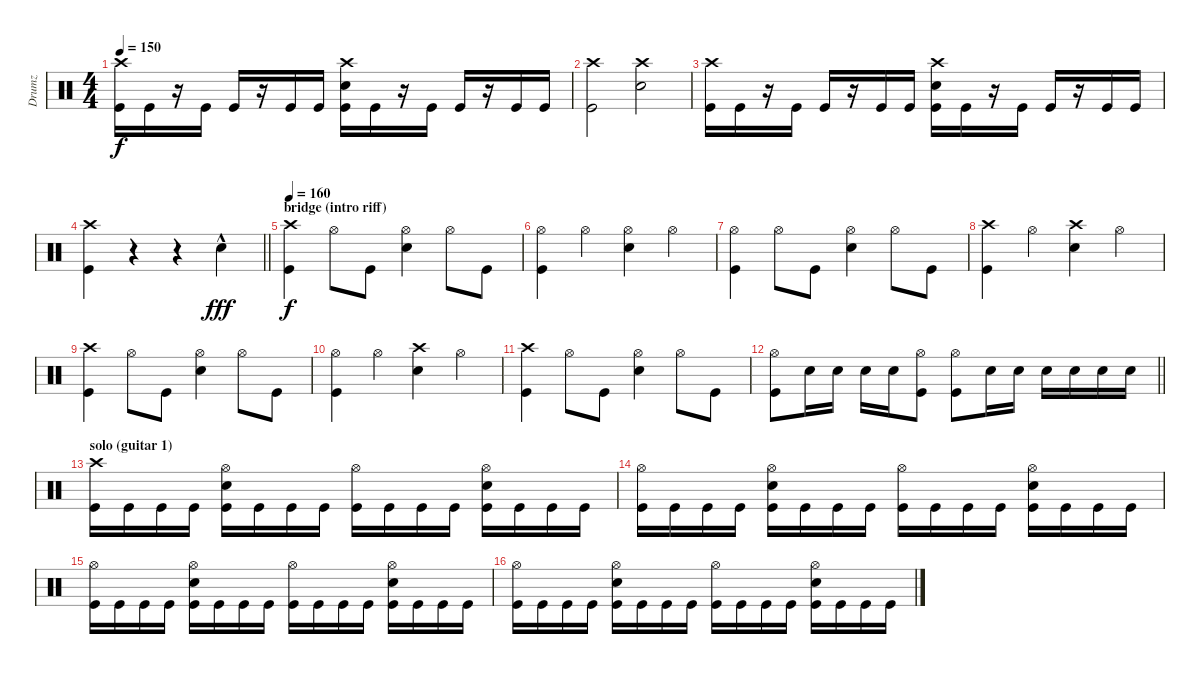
\track ("Drumz" "Drumz") {instrument percussion}
\staff {score}
\articulation defaults
\ts (4 4)
\tempo 150
\clef neutral
\ks c
("Crash high (hit)" "Kick (hit)").16{dy f} "Kick (hit)".16 r.16 "Kick (hit)".16 "Kick (hit)".16 r.16 "Kick (hit)".16 "Kick (hit)".16 ("Crash high (hit)" "Electric Snare (hit)" "Kick (hit)").16 "Kick (hit)".16 r.16 "Kick (hit)".16 "Kick (hit)".16 r.16 "Kick (hit)".16 "Kick (hit)".16 |
("Crash high (hit)" "Kick (hit)").2 ("Crash high (hit)" "Electric Snare (hit)").2 |
("Crash high (hit)" "Kick (hit)").16 "Kick (hit)".16 r.16 "Kick (hit)".16 "Kick (hit)".16 r.16 "Kick (hit)".16 "Kick (hit)".16 ("Crash high (hit)" "Electric Snare (hit)" "Kick (hit)").16 "Kick (hit)".16 r.16 "Kick (hit)".16 "Kick (hit)".16 r.16 "Kick (hit)".16 "Kick (hit)".16 |
\barLineRight lightlight
("Crash high (hit)" "Kick (hit)").4 r.4 r.4 "Electric Snare (hit)"{hac}.4{dy fff} |
\section ("" "bridge (intro riff)")
\tempo 160
("Crash high (hit)" "Kick (hit)").4{dy f} "Hi-Hat (open)".8 "Kick (hit)".8 ("Hi-Hat (open)" "Electric Snare (hit)").4 "Hi-Hat (open)".8 "Kick (hit)".8 |
("Hi-Hat (open)" "Kick (hit)").4 "Hi-Hat (open)".4 ("Hi-Hat (open)" "Electric Snare (hit)").4 "Hi-Hat (open)".4 |
("Hi-Hat (open)" "Kick (hit)").4 "Hi-Hat (open)".8 "Kick (hit)".8 ("Hi-Hat (open)" "Electric Snare (hit)").4 "Hi-Hat (open)".8 "Kick (hit)".8 |
("Crash high (hit)" "Kick (hit)").4 "Hi-Hat (open)".4 ("Crash high (hit)" "Electric Snare (hit)").4 "Hi-Hat (open)".4 |
("Crash high (hit)" "Kick (hit)").4 "Hi-Hat (open)".8 "Kick (hit)".8 ("Hi-Hat (open)" "Electric Snare (hit)").4 "Hi-Hat (open)".8 "Kick (hit)".8 |
("Hi-Hat (open)" "Kick (hit)").4 "Hi-Hat (open)".4 ("Crash high (hit)" "Electric Snare (hit)").4 "Hi-Hat (open)".4 |
("Crash high (hit)" "Kick (hit)").4 "Hi-Hat (open)".8 "Kick (hit)".8 ("Hi-Hat (open)" "Electric Snare (hit)").4 "Hi-Hat (open)".8 "Kick (hit)".8 |
\barLineRight lightlight
("Hi-Hat (open)" "Kick (hit)").8 "Electric Snare (hit)".16 "Electric Snare (hit)".16 "Electric Snare (hit)".16 "Electric Snare (hit)".16 ("Hi-Hat (open)" "Kick (hit)").8 ("Hi-Hat (open)" "Kick (hit)").8 "Electric Snare (hit)".16 "Electric Snare (hit)".16 "Electric Snare (hit)".16 "Electric Snare (hit)".16 "Electric Snare (hit)".16 "Electric Snare (hit)".16 |
\section ("" "solo (guitar 1)")
("Crash high (hit)" "Kick (hit)").16 "Kick (hit)".16 "Kick (hit)".16 "Kick (hit)".16 ("Hi-Hat (open)" "Electric Snare (hit)" "Kick (hit)").16 "Kick (hit)".16 "Kick (hit)".16 "Kick (hit)".16 ("Hi-Hat (open)" "Kick (hit)").16 "Kick (hit)".16 "Kick (hit)".16 "Kick (hit)".16 ("Hi-Hat (open)" "Electric Snare (hit)" "Kick (hit)").16 "Kick (hit)".16 "Kick (hit)".16 "Kick (hit)".16 |
("Hi-Hat (open)" "Kick (hit)").16 "Kick (hit)".16 "Kick (hit)".16 "Kick (hit)".16 ("Hi-Hat (open)" "Electric Snare (hit)" "Kick (hit)").16 "Kick (hit)".16 "Kick (hit)".16 "Kick (hit)".16 ("Hi-Hat (open)" "Kick (hit)").16 "Kick (hit)".16 "Kick (hit)".16 "Kick (hit)".16 ("Hi-Hat (open)" "Electric Snare (hit)" "Kick (hit)").16 "Kick (hit)".16 "Kick (hit)".16 "Kick (hit)".16 |
("Hi-Hat (open)" "Kick (hit)").16 "Kick (hit)".16 "Kick (hit)".16 "Kick (hit)".16 ("Hi-Hat (open)" "Electric Snare (hit)" "Kick (hit)").16 "Kick (hit)".16 "Kick (hit)".16 "Kick (hit)".16 ("Hi-Hat (open)" "Kick (hit)").16 "Kick (hit)".16 "Kick (hit)".16 "Kick (hit)".16 ("Hi-Hat (open)" "Electric Snare (hit)" "Kick (hit)").16 "Kick (hit)".16 "Kick (hit)".16 "Kick (hit)".16 |
("Hi-Hat (open)" "Kick (hit)").16 "Kick (hit)".16 "Kick (hit)".16 "Kick (hit)".16 ("Hi-Hat (open)" "Electric Snare (hit)" "Kick (hit)").16 "Kick (hit)".16 "Kick (hit)".16 "Kick (hit)".16 ("Hi-Hat (open)" "Kick (hit)").16 "Kick (hit)".16 "Kick (hit)".16 "Kick (hit)".16 ("Hi-Hat (open)" "Electric Snare (hit)" "Kick (hit)").16 "Kick (hit)".16 "Kick (hit)".16 "Kick (hit)".16
